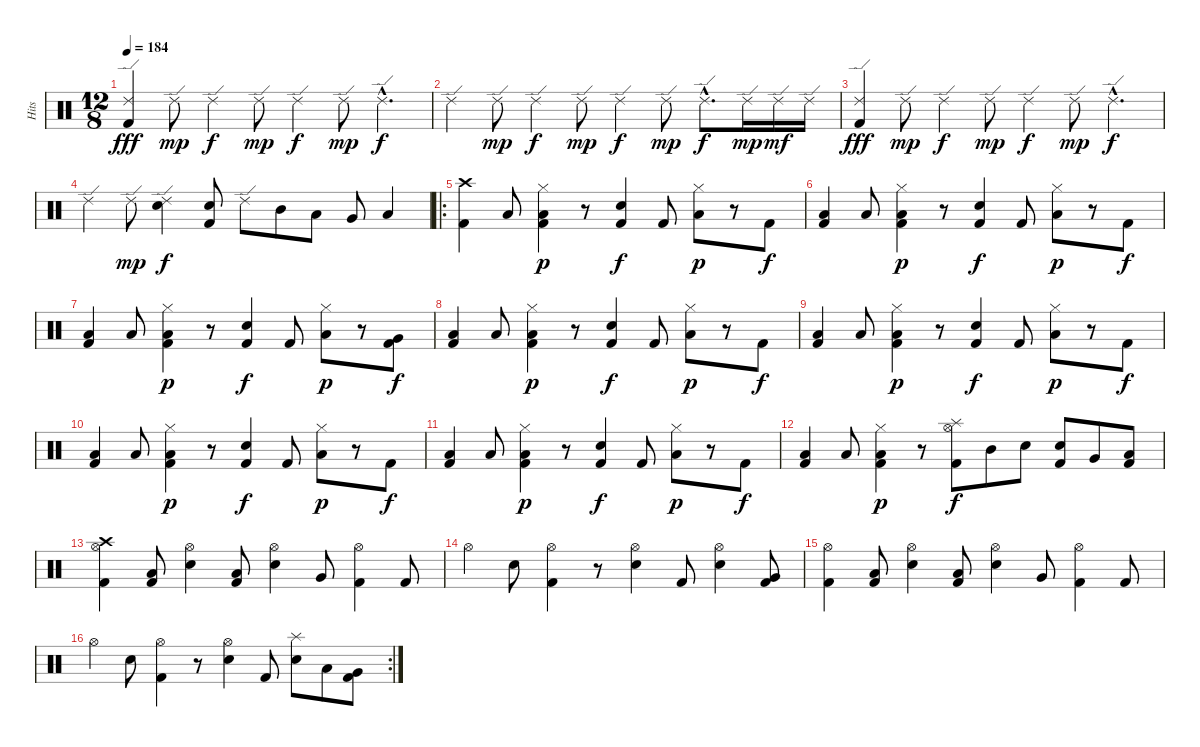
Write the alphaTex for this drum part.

\track ("Hits" "Hits") {instrument percussion}
\staff {score}
\articulation defaults
\ts (12 8)
\tempo 184
\clef neutral
\ks c
("Ride (edge) 2" "Kick (hit) 2").4{dy fff} "Ride (edge) 2".8{dy mp} "Ride (edge) 2".4{dy f} "Ride (edge) 2".8{dy mp} "Ride (edge) 2".4{dy f} "Ride (edge) 2".8{dy mp} "Ride (edge) 2"{hac}.4{d dy f} |
"Ride (edge) 2".4 "Ride (edge) 2".8{dy mp} "Ride (edge) 2".4{dy f} "Ride (edge) 2".8{dy mp} "Ride (edge) 2".4{dy f} "Ride (edge) 2".8{dy mp} "Ride (edge) 2"{hac}.8{d dy f} "Ride (edge) 2".16{dy mp} "Ride (edge) 2".16{dy mf} "Ride (edge) 2".16 |
("Ride (edge) 2" "Kick (hit) 2").4{dy fff} "Ride (edge) 2".8{dy mp} "Ride (edge) 2".4{dy f} "Ride (edge) 2".8{dy mp} "Ride (edge) 2".4{dy f} "Ride (edge) 2".8{dy mp} "Ride (edge) 2"{hac}.4{d dy f} |
"Ride (edge) 2".4 "Ride (edge) 2".8{dy mp} ("Ride (edge) 2" "Electric Snare (hit)").4{dy f} ("Electric Snare (hit)" "Kick (hit) 2").8 "Ride (edge) 2".8 "Mid Tom (hit)".8 "Low Tom (hit)".8 "Very Low Tom (hit)".8 "Low Floor Tom (hit)".4 |
\ro
("Crash high (hit)" "Kick (hit) 2").4 "Low Tom (hit)".8 ("Hi-Hat (closed)" "Low Floor Tom (hit)" "Kick (hit) 2").4{dy p} r.8 ("Electric Snare (hit)" "Kick (hit) 2").4{dy f} "Kick (hit) 2".8 ("Hi-Hat (closed)" "Low Floor Tom (hit)").8{dy p} r.8 "Kick (hit) 2".8{dy f} |
("Low Floor Tom (hit)" "Kick (hit) 2").4 "Low Tom (hit)".8 ("Hi-Hat (closed)" "Low Floor Tom (hit)" "Kick (hit) 2").4{dy p} r.8 ("Electric Snare (hit)" "Kick (hit) 2").4{dy f} "Kick (hit) 2".8 ("Hi-Hat (closed)" "Low Floor Tom (hit)").8{dy p} r.8 "Kick (hit) 2".8{dy f} |
("Low Floor Tom (hit)" "Kick (hit) 2").4 "Low Tom (hit)".8 ("Hi-Hat (closed)" "Low Floor Tom (hit)" "Kick (hit) 2").4{dy p} r.8 ("Electric Snare (hit)" "Kick (hit) 2").4{dy f} "Kick (hit) 2".8 ("Hi-Hat (closed)" "Low Floor Tom (hit)").8{dy p} r.8 ("Very Low Tom (hit)" "Kick (hit) 2").8{dy f} |
("Low Floor Tom (hit)" "Kick (hit) 2").4 "Low Tom (hit)".8 ("Hi-Hat (closed)" "Low Floor Tom (hit)" "Kick (hit) 2").4{dy p} r.8 ("Electric Snare (hit)" "Kick (hit) 2").4{dy f} "Kick (hit) 2".8 ("Hi-Hat (closed)" "Low Floor Tom (hit)").8{dy p} r.8 "Kick (hit) 2".8{dy f} |
("Low Floor Tom (hit)" "Kick (hit) 2").4 "Low Tom (hit)".8 ("Hi-Hat (closed)" "Low Floor Tom (hit)" "Kick (hit) 2").4{dy p} r.8 ("Electric Snare (hit)" "Kick (hit) 2").4{dy f} "Kick (hit) 2".8 ("Hi-Hat (closed)" "Low Floor Tom (hit)").8{dy p} r.8 "Kick (hit) 2".8{dy f} |
("Low Floor Tom (hit)" "Kick (hit) 2").4 "Low Tom (hit)".8 ("Hi-Hat (closed)" "Low Floor Tom (hit)" "Kick (hit) 2").4{dy p} r.8 ("Electric Snare (hit)" "Kick (hit) 2").4{dy f} "Kick (hit) 2".8 ("Hi-Hat (closed)" "Low Floor Tom (hit)").8{dy p} r.8 "Kick (hit) 2".8{dy f} |
("Low Floor Tom (hit)" "Kick (hit) 2").4 "Low Tom (hit)".8 ("Hi-Hat (closed)" "Low Floor Tom (hit)" "Kick (hit) 2").4{dy p} r.8 ("Electric Snare (hit)" "Kick (hit) 2").4{dy f} "Kick (hit) 2".8 ("Hi-Hat (closed)" "Low Floor Tom (hit)").8{dy p} r.8 "Kick (hit) 2".8{dy f} |
("Low Floor Tom (hit)" "Kick (hit) 2").4 "Low Tom (hit)".8 ("Hi-Hat (closed)" "Low Floor Tom (hit)" "Kick (hit) 2").4{dy p} r.8 ("Splash (hit)" "Hi-Hat (open)" "Kick (hit) 2").8{dy f} "Mid Tom (hit)".8 "Electric Snare (hit)".8 ("Electric Snare (hit)" "Kick (hit) 2").8 "Very Low Tom (hit)".8 ("Low Floor Tom (hit)" "Kick (hit) 2").8 |
("Crash high (hit)" "Hi-Hat (open)" "Kick (hit) 2").4 ("Low Tom (hit)" "Kick (hit) 2").8 ("Hi-Hat (open)" "Electric Snare (hit)").4 ("Low Tom (hit)" "Kick (hit) 2").8 ("Hi-Hat (open)" "Electric Snare (hit)").4 "Very Low Tom (hit)".8 ("Hi-Hat (open)" "Kick (hit) 2").4 "Kick (hit) 2".8 |
"Hi-Hat (open)".4 "Electric Snare (hit)".8 ("Hi-Hat (open)" "Kick (hit) 2").4 r.8 ("Hi-Hat (open)" "Electric Snare (hit)").4 "Kick (hit) 2".8 ("Hi-Hat (open)" "Electric Snare (hit)").4 ("Very Low Tom (hit)" "Kick (hit) 2").8 |
("Hi-Hat (open)" "Kick (hit) 2").4 ("Low Tom (hit)" "Kick (hit) 2").8 ("Hi-Hat (open)" "Electric Snare (hit)").4 ("Low Tom (hit)" "Kick (hit) 2").8 ("Hi-Hat (open)" "Electric Snare (hit)").4 "Very Low Tom (hit)".8 ("Hi-Hat (open)" "Kick (hit) 2").4 "Kick (hit) 2".8 |
\rc 2 "Hi-Hat (open)".4 "Electric Snare (hit)".8
("Hi-Hat (open)" "Kick (hit) 2").4 r.8 ("Hi-Hat (open)" "Electric Snare (hit)").4 "Kick (hit) 2".8 ("Splash (hit)" "Electric Snare (hit)").8 "Low Tom (hit)".8 ("Very Low Tom (hit)" "Kick (hit) 2").8
